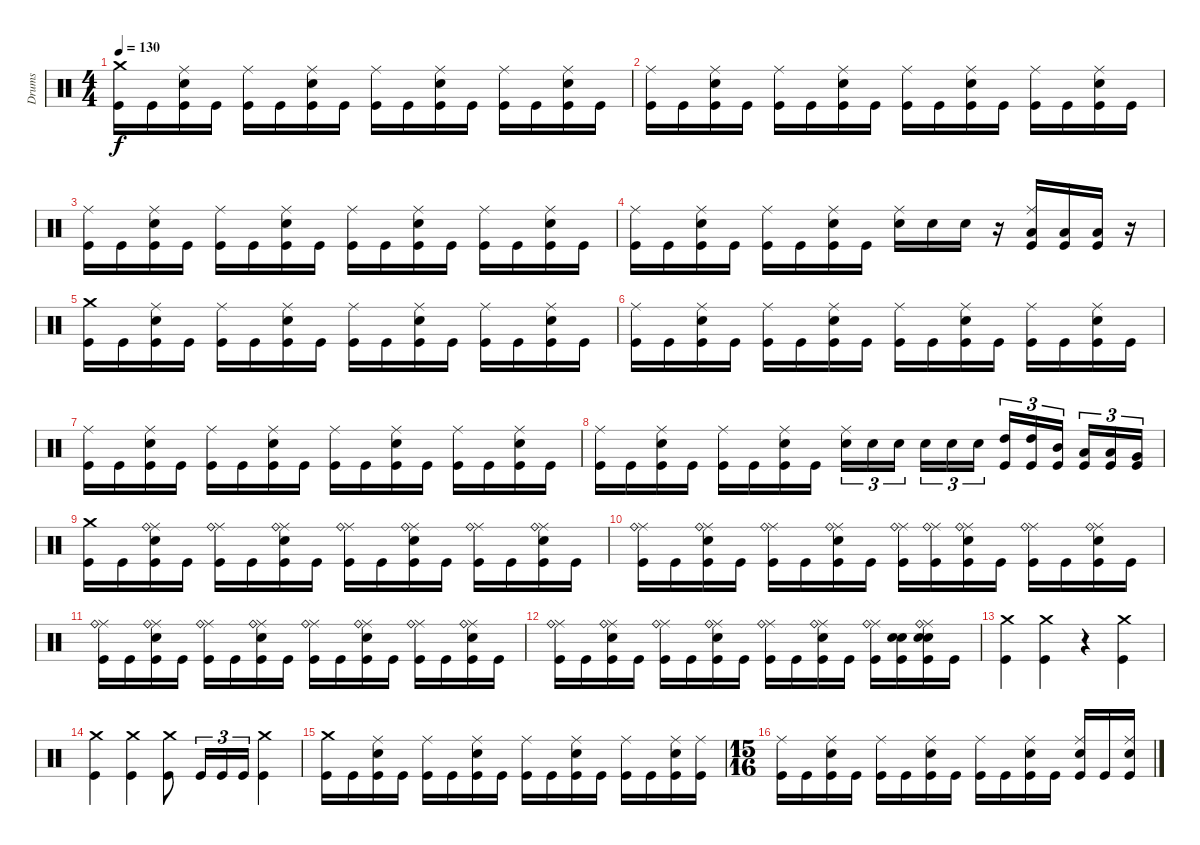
\track ("Drums" "Drums") {instrument percussion}
\staff {score}
\articulation defaults
\ts (4 4)
\tempo 130
\clef neutral
\ks c
("Crash medium (hit)" "Kick (hit)").16{dy f} "Kick (hit)".16 ("Ride (middle)" "Electric Snare (hit)" "Kick (hit)").16 "Kick (hit)".16 ("Ride (middle)" "Kick (hit)").16 "Kick (hit)".16 ("Ride (middle)" "Electric Snare (hit)" "Kick (hit)").16 "Kick (hit)".16 ("Ride (middle)" "Kick (hit)").16 "Kick (hit)".16 ("Ride (middle)" "Electric Snare (hit)" "Kick (hit)").16 "Kick (hit)".16 ("Ride (middle)" "Kick (hit)").16 "Kick (hit)".16 ("Ride (middle)" "Electric Snare (hit)" "Kick (hit)").16 "Kick (hit)".16 |
("Ride (middle)" "Kick (hit)").16 "Kick (hit)".16 ("Ride (middle)" "Electric Snare (hit)" "Kick (hit)").16 "Kick (hit)".16 ("Ride (middle)" "Kick (hit)").16 "Kick (hit)".16 ("Ride (middle)" "Electric Snare (hit)" "Kick (hit)").16 "Kick (hit)".16 ("Ride (middle)" "Kick (hit)").16 "Kick (hit)".16 ("Ride (middle)" "Electric Snare (hit)" "Kick (hit)").16 "Kick (hit)".16 ("Ride (middle)" "Kick (hit)").16 "Kick (hit)".16 ("Ride (middle)" "Electric Snare (hit)" "Kick (hit)").16 "Kick (hit)".16 |
("Ride (middle)" "Kick (hit)").16 "Kick (hit)".16 ("Ride (middle)" "Electric Snare (hit)" "Kick (hit)").16 "Kick (hit)".16 ("Ride (middle)" "Kick (hit)").16 "Kick (hit)".16 ("Ride (middle)" "Electric Snare (hit)" "Kick (hit)").16 "Kick (hit)".16 ("Ride (middle)" "Kick (hit)").16 "Kick (hit)".16 ("Ride (middle)" "Electric Snare (hit)" "Kick (hit)").16 "Kick (hit)".16 ("Ride (middle)" "Kick (hit)").16 "Kick (hit)".16 ("Ride (middle)" "Electric Snare (hit)" "Kick (hit)").16 "Kick (hit)".16 |
("Ride (middle)" "Kick (hit)").16 "Kick (hit)".16 ("Ride (middle)" "Electric Snare (hit)" "Kick (hit)").16 "Kick (hit)".16 ("Ride (middle)" "Kick (hit)").16 "Kick (hit)".16 ("Ride (middle)" "Electric Snare (hit)" "Kick (hit)").16 "Kick (hit)".16 ("Ride (middle)" "Electric Snare (hit)").16 "Electric Snare (hit)".16 "Electric Snare (hit)".16 r.16 ("Ride (middle)" "Low Tom (hit)" "Kick (hit)").16 ("Low Tom (hit)" "Kick (hit)").16 ("Low Tom (hit)" "Kick (hit)").16 r.16 |
("Crash medium (hit)" "Kick (hit)").16 "Kick (hit)".16 ("Ride (middle)" "Electric Snare (hit)" "Kick (hit)").16 "Kick (hit)".16 ("Ride (middle)" "Kick (hit)").16 "Kick (hit)".16 ("Ride (middle)" "Electric Snare (hit)" "Kick (hit)").16 "Kick (hit)".16 ("Ride (middle)" "Kick (hit)").16 "Kick (hit)".16 ("Ride (middle)" "Electric Snare (hit)" "Kick (hit)").16 "Kick (hit)".16 ("Ride (middle)" "Kick (hit)").16 "Kick (hit)".16 ("Ride (middle)" "Electric Snare (hit)" "Kick (hit)").16 "Kick (hit)".16 |
("Ride (middle)" "Kick (hit)").16 "Kick (hit)".16 ("Ride (middle)" "Electric Snare (hit)" "Kick (hit)").16 "Kick (hit)".16 ("Ride (middle)" "Kick (hit)").16 "Kick (hit)".16 ("Ride (middle)" "Electric Snare (hit)" "Kick (hit)").16 "Kick (hit)".16 ("Ride (middle)" "Kick (hit)").16 "Kick (hit)".16 ("Ride (middle)" "Electric Snare (hit)" "Kick (hit)").16 "Kick (hit)".16 ("Ride (middle)" "Kick (hit)").16 "Kick (hit)".16 ("Ride (middle)" "Electric Snare (hit)" "Kick (hit)").16 "Kick (hit)".16 |
("Ride (middle)" "Kick (hit)").16 "Kick (hit)".16 ("Ride (middle)" "Electric Snare (hit)" "Kick (hit)").16 "Kick (hit)".16 ("Ride (middle)" "Kick (hit)").16 "Kick (hit)".16 ("Ride (middle)" "Electric Snare (hit)" "Kick (hit)").16 "Kick (hit)".16 ("Ride (middle)" "Kick (hit)").16 "Kick (hit)".16 ("Ride (middle)" "Electric Snare (hit)" "Kick (hit)").16 "Kick (hit)".16 ("Ride (middle)" "Kick (hit)").16 "Kick (hit)".16 ("Ride (middle)" "Electric Snare (hit)" "Kick (hit)").16 "Kick (hit)".16 |
("Ride (middle)" "Kick (hit)").16 "Kick (hit)".16 ("Ride (middle)" "Electric Snare (hit)" "Kick (hit)").16 "Kick (hit)".16 ("Ride (middle)" "Kick (hit)").16 "Kick (hit)".16 ("Ride (middle)" "Electric Snare (hit)" "Kick (hit)").16 "Kick (hit)".16 ("Ride (middle)" "Electric Snare (hit)").16{tu (3 2)} "Electric Snare (hit)".16{tu (3 2)} "Electric Snare (hit)".16{tu (3 2)} "Electric Snare (hit)".16{tu (3 2)} "Electric Snare (hit)".16{tu (3 2)} "Electric Snare (hit)".16{tu (3 2)} ("High Tom (hit)" "Kick (hit)").16{tu (3 2)} ("High Tom (hit)" "Kick (hit)").16{tu (3 2)} ("Mid Tom (hit)" "Kick (hit)").16{tu (3 2)} ("Low Tom (hit)" "Kick (hit)").16{tu (3 2)} ("Low Tom (hit)" "Kick (hit)").16{tu (3 2)} ("Very Low Tom (hit)" "Kick (hit)").16{tu (3 2)} |
("Crash medium (hit)" "Kick (hit)").16 "Kick (hit)".16 ("Ride (middle)" "Ride (bell)" "Electric Snare (hit)" "Kick (hit)").16 "Kick (hit)".16 ("Ride (middle)" "Ride (bell)" "Kick (hit)").16 "Kick (hit)".16 ("Ride (middle)" "Ride (bell)" "Electric Snare (hit)" "Kick (hit)").16 "Kick (hit)".16 ("Ride (middle)" "Ride (bell)" "Kick (hit)").16 "Kick (hit)".16 ("Ride (middle)" "Ride (bell)" "Electric Snare (hit)" "Kick (hit)").16 "Kick (hit)".16 ("Ride (middle)" "Ride (bell)" "Kick (hit)").16 "Kick (hit)".16 ("Ride (middle)" "Ride (bell)" "Electric Snare (hit)" "Kick (hit)").16 "Kick (hit)".16 |
("Ride (middle)" "Ride (bell)" "Kick (hit)").16 "Kick (hit)".16 ("Ride (middle)" "Ride (bell)" "Electric Snare (hit)" "Kick (hit)").16 "Kick (hit)".16 ("Ride (middle)" "Ride (bell)" "Kick (hit)").16 "Kick (hit)".16 ("Ride (middle)" "Ride (bell)" "Electric Snare (hit)" "Kick (hit)").16 "Kick (hit)".16 ("Ride (middle)" "Ride (bell)" "Kick (hit)").16 ("Ride (middle)" "Ride (bell)" "Kick (hit)").16 ("Ride (middle)" "Ride (bell)" "Electric Snare (hit)" "Kick (hit)").16 "Kick (hit)".16 ("Ride (middle)" "Ride (bell)" "Kick (hit)").16 "Kick (hit)".16 ("Ride (middle)" "Ride (bell)" "Electric Snare (hit)" "Kick (hit)").16 "Kick (hit)".16 |
("Ride (middle)" "Ride (bell)" "Kick (hit)").16 "Kick (hit)".16 ("Ride (middle)" "Ride (bell)" "Electric Snare (hit)" "Kick (hit)").16 "Kick (hit)".16 ("Ride (middle)" "Ride (bell)" "Kick (hit)").16 "Kick (hit)".16 ("Ride (middle)" "Ride (bell)" "Electric Snare (hit)" "Kick (hit)").16 "Kick (hit)".16 ("Ride (middle)" "Ride (bell)" "Kick (hit)").16 "Kick (hit)".16 ("Ride (middle)" "Ride (bell)" "Electric Snare (hit)" "Kick (hit)").16 "Kick (hit)".16 ("Ride (middle)" "Ride (bell)" "Kick (hit)").16 "Kick (hit)".16 ("Ride (middle)" "Ride (bell)" "Electric Snare (hit)" "Kick (hit)").16 "Kick (hit)".16 |
("Ride (middle)" "Ride (bell)" "Kick (hit)").16 "Kick (hit)".16 ("Ride (middle)" "Ride (bell)" "Electric Snare (hit)" "Kick (hit)").16 "Kick (hit)".16 ("Ride (middle)" "Ride (bell)" "Kick (hit)").16 "Kick (hit)".16 ("Ride (middle)" "Ride (bell)" "Electric Snare (hit)" "Kick (hit)").16 "Kick (hit)".16 ("Ride (middle)" "Ride (bell)" "Kick (hit)").16 "Kick (hit)".16 ("Ride (middle)" "Ride (bell)" "Electric Snare (hit)" "Kick (hit)").16 "Kick (hit)".16 ("Ride (middle)" "Ride (bell)" "Kick (hit)").16 ("Electric Snare (hit)" "Snare (hit) 2" "Kick (hit)").16 ("Ride (middle)" "Ride (bell)" "Electric Snare (hit)" "Snare (hit) 2" "Kick (hit)").16 "Kick (hit)".16 |
("Crash medium (hit)" "Kick (hit)").4 ("Crash medium (hit)" "Kick (hit)").4 r.4 ("Crash medium (hit)" "Kick (hit)").4 |
("Crash medium (hit)" "Kick (hit)").4 ("Crash medium (hit)" "Kick (hit)").4 ("Crash medium (hit)" "Kick (hit)").8 "Kick (hit)".16{tu (3 2)} "Kick (hit)".16{tu (3 2)} "Kick (hit)".16{tu (3 2)} ("Crash medium (hit)" "Kick (hit)").4 |
("Crash medium (hit)" "Kick (hit)").16 "Kick (hit)".16 ("Ride (middle)" "Electric Snare (hit)" "Kick (hit)").16 "Kick (hit)".16 ("Ride (middle)" "Kick (hit)").16 "Kick (hit)".16 ("Ride (middle)" "Electric Snare (hit)" "Kick (hit)").16 "Kick (hit)".16 ("Ride (middle)" "Kick (hit)").16 "Kick (hit)".16 ("Ride (middle)" "Electric Snare (hit)" "Kick (hit)").16 "Kick (hit)".16 ("Ride (middle)" "Kick (hit)").16 "Kick (hit)".16 ("Ride (middle)" "Electric Snare (hit)" "Kick (hit)").16 ("Ride (middle)" "Kick (hit)").16 |
\ts (15 16)
("Ride (middle)" "Kick (hit)").16 "Kick (hit)".16 ("Ride (middle)" "Electric Snare (hit)" "Kick (hit)").16 "Kick (hit)".16 ("Ride (middle)" "Kick (hit)").16 "Kick (hit)".16 ("Ride (middle)" "Electric Snare (hit)" "Kick (hit)").16 "Kick (hit)".16 ("Ride (middle)" "Kick (hit)").16 "Kick (hit)".16 ("Ride (middle)" "Electric Snare (hit)" "Kick (hit)").16 "Kick (hit)".16 ("Ride (middle)" "Electric Snare (hit)" "Kick (hit)").16 "Kick (hit)".16 ("Ride (middle)" "Electric Snare (hit)" "Kick (hit)").16
